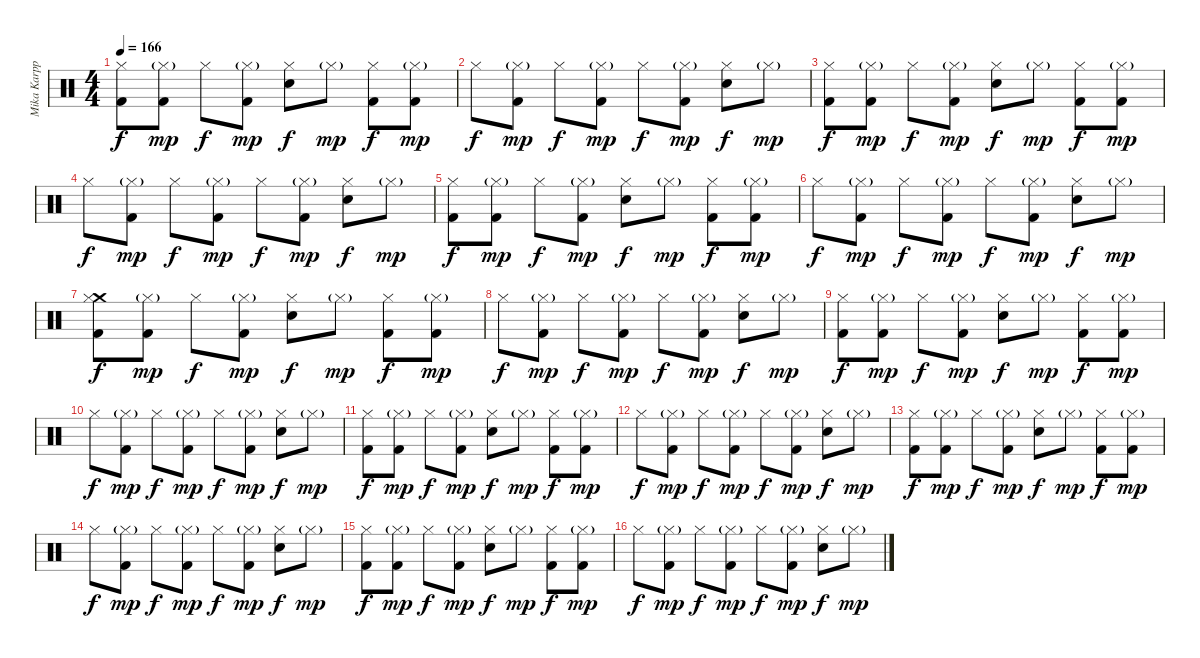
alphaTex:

\track ("Mika Karppinen" "Mika Karpp") {instrument percussion}
\staff {score}
\articulation defaults
\ts (4 4)
\tempo 166
\clef neutral
\ks c
("Hi-Hat (closed)" "Kick (hit) 2").8{dy f} ("Hi-Hat (closed)"{g} "Kick (hit) 2").8{dy mp} "Hi-Hat (closed)".8{dy f} ("Hi-Hat (closed)"{g} "Kick (hit) 2").8{dy mp} ("Hi-Hat (closed)" "Snare (hit) 2").8{dy f} "Hi-Hat (closed)"{g}.8{dy mp} ("Hi-Hat (closed)" "Kick (hit) 2").8{dy f} ("Hi-Hat (closed)"{g} "Kick (hit) 2").8{dy mp} |
"Hi-Hat (closed)".8{dy f} ("Hi-Hat (closed)"{g} "Kick (hit) 2").8{dy mp} "Hi-Hat (closed)".8{dy f} ("Hi-Hat (closed)"{g} "Kick (hit) 2").8{dy mp} "Hi-Hat (closed)".8{dy f} ("Hi-Hat (closed)"{g} "Kick (hit) 2").8{dy mp} ("Hi-Hat (closed)" "Snare (hit) 2").8{dy f} "Hi-Hat (closed)"{g}.8{dy mp} |
("Hi-Hat (closed)" "Kick (hit) 2").8{dy f} ("Hi-Hat (closed)"{g} "Kick (hit) 2").8{dy mp} "Hi-Hat (closed)".8{dy f} ("Hi-Hat (closed)"{g} "Kick (hit) 2").8{dy mp} ("Hi-Hat (closed)" "Snare (hit) 2").8{dy f} "Hi-Hat (closed)"{g}.8{dy mp} ("Hi-Hat (closed)" "Kick (hit) 2").8{dy f} ("Hi-Hat (closed)"{g} "Kick (hit) 2").8{dy mp} |
"Hi-Hat (closed)".8{dy f} ("Hi-Hat (closed)"{g} "Kick (hit) 2").8{dy mp} "Hi-Hat (closed)".8{dy f} ("Hi-Hat (closed)"{g} "Kick (hit) 2").8{dy mp} "Hi-Hat (closed)".8{dy f} ("Hi-Hat (closed)"{g} "Kick (hit) 2").8{dy mp} ("Hi-Hat (closed)" "Snare (hit) 2").8{dy f} "Hi-Hat (closed)"{g}.8{dy mp} |
("Hi-Hat (closed)" "Kick (hit) 2").8{dy f} ("Hi-Hat (closed)"{g} "Kick (hit) 2").8{dy mp} "Hi-Hat (closed)".8{dy f} ("Hi-Hat (closed)"{g} "Kick (hit) 2").8{dy mp} ("Hi-Hat (closed)" "Snare (hit) 2").8{dy f} "Hi-Hat (closed)"{g}.8{dy mp} ("Hi-Hat (closed)" "Kick (hit) 2").8{dy f} ("Hi-Hat (closed)"{g} "Kick (hit) 2").8{dy mp} |
"Hi-Hat (closed)".8{dy f} ("Hi-Hat (closed)"{g} "Kick (hit) 2").8{dy mp} "Hi-Hat (closed)".8{dy f} ("Hi-Hat (closed)"{g} "Kick (hit) 2").8{dy mp} "Hi-Hat (closed)".8{dy f} ("Hi-Hat (closed)"{g} "Kick (hit) 2").8{dy mp} ("Hi-Hat (closed)" "Snare (hit) 2").8{dy f} "Hi-Hat (closed)"{g}.8{dy mp} |
("Crash medium (hit)" "Hi-Hat (closed)" "Kick (hit) 2").8{dy f} ("Hi-Hat (closed)"{g} "Kick (hit) 2").8{dy mp} "Hi-Hat (closed)".8{dy f} ("Hi-Hat (closed)"{g} "Kick (hit) 2").8{dy mp} ("Hi-Hat (closed)" "Snare (hit) 2").8{dy f} "Hi-Hat (closed)"{g}.8{dy mp} ("Hi-Hat (closed)" "Kick (hit) 2").8{dy f} ("Hi-Hat (closed)"{g} "Kick (hit) 2").8{dy mp} |
"Hi-Hat (closed)".8{dy f} ("Hi-Hat (closed)"{g} "Kick (hit) 2").8{dy mp} "Hi-Hat (closed)".8{dy f} ("Hi-Hat (closed)"{g} "Kick (hit) 2").8{dy mp} "Hi-Hat (closed)".8{dy f} ("Hi-Hat (closed)"{g} "Kick (hit) 2").8{dy mp} ("Hi-Hat (closed)" "Snare (hit) 2").8{dy f} "Hi-Hat (closed)"{g}.8{dy mp} |
("Hi-Hat (closed)" "Kick (hit) 2").8{dy f} ("Hi-Hat (closed)"{g} "Kick (hit) 2").8{dy mp} "Hi-Hat (closed)".8{dy f} ("Hi-Hat (closed)"{g} "Kick (hit) 2").8{dy mp} ("Hi-Hat (closed)" "Snare (hit) 2").8{dy f} "Hi-Hat (closed)"{g}.8{dy mp} ("Hi-Hat (closed)" "Kick (hit) 2").8{dy f} ("Hi-Hat (closed)"{g} "Kick (hit) 2").8{dy mp} |
"Hi-Hat (closed)".8{dy f} ("Hi-Hat (closed)"{g} "Kick (hit) 2").8{dy mp} "Hi-Hat (closed)".8{dy f} ("Hi-Hat (closed)"{g} "Kick (hit) 2").8{dy mp} "Hi-Hat (closed)".8{dy f} ("Hi-Hat (closed)"{g} "Kick (hit) 2").8{dy mp} ("Hi-Hat (closed)" "Snare (hit) 2").8{dy f} "Hi-Hat (closed)"{g}.8{dy mp} |
("Hi-Hat (closed)" "Kick (hit) 2").8{dy f} ("Hi-Hat (closed)"{g} "Kick (hit) 2").8{dy mp} "Hi-Hat (closed)".8{dy f} ("Hi-Hat (closed)"{g} "Kick (hit) 2").8{dy mp} ("Hi-Hat (closed)" "Snare (hit) 2").8{dy f} "Hi-Hat (closed)"{g}.8{dy mp} ("Hi-Hat (closed)" "Kick (hit) 2").8{dy f} ("Hi-Hat (closed)"{g} "Kick (hit) 2").8{dy mp} |
"Hi-Hat (closed)".8{dy f} ("Hi-Hat (closed)"{g} "Kick (hit) 2").8{dy mp} "Hi-Hat (closed)".8{dy f} ("Hi-Hat (closed)"{g} "Kick (hit) 2").8{dy mp} "Hi-Hat (closed)".8{dy f} ("Hi-Hat (closed)"{g} "Kick (hit) 2").8{dy mp} ("Hi-Hat (closed)" "Snare (hit) 2").8{dy f} "Hi-Hat (closed)"{g}.8{dy mp} |
("Hi-Hat (closed)" "Kick (hit) 2").8{dy f} ("Hi-Hat (closed)"{g} "Kick (hit) 2").8{dy mp} "Hi-Hat (closed)".8{dy f} ("Hi-Hat (closed)"{g} "Kick (hit) 2").8{dy mp} ("Hi-Hat (closed)" "Snare (hit) 2").8{dy f} "Hi-Hat (closed)"{g}.8{dy mp} ("Hi-Hat (closed)" "Kick (hit) 2").8{dy f} ("Hi-Hat (closed)"{g} "Kick (hit) 2").8{dy mp} |
"Hi-Hat (closed)".8{dy f} ("Hi-Hat (closed)"{g} "Kick (hit) 2").8{dy mp} "Hi-Hat (closed)".8{dy f} ("Hi-Hat (closed)"{g} "Kick (hit) 2").8{dy mp} "Hi-Hat (closed)".8{dy f} ("Hi-Hat (closed)"{g} "Kick (hit) 2").8{dy mp} ("Hi-Hat (closed)" "Snare (hit) 2").8{dy f} "Hi-Hat (closed)"{g}.8{dy mp} |
("Hi-Hat (closed)" "Kick (hit) 2").8{dy f} ("Hi-Hat (closed)"{g} "Kick (hit) 2").8{dy mp} "Hi-Hat (closed)".8{dy f} ("Hi-Hat (closed)"{g} "Kick (hit) 2").8{dy mp} ("Hi-Hat (closed)" "Snare (hit) 2").8{dy f} "Hi-Hat (closed)"{g}.8{dy mp} ("Hi-Hat (closed)" "Kick (hit) 2").8{dy f} ("Hi-Hat (closed)"{g} "Kick (hit) 2").8{dy mp} |
"Hi-Hat (closed)".8{dy f} ("Hi-Hat (closed)"{g} "Kick (hit) 2").8{dy mp} "Hi-Hat (closed)".8{dy f} ("Hi-Hat (closed)"{g} "Kick (hit) 2").8{dy mp} "Hi-Hat (closed)".8{dy f} ("Hi-Hat (closed)"{g} "Kick (hit) 2").8{dy mp} ("Hi-Hat (closed)" "Snare (hit) 2").8{dy f} "Hi-Hat (closed)"{g}.8{dy mp}
